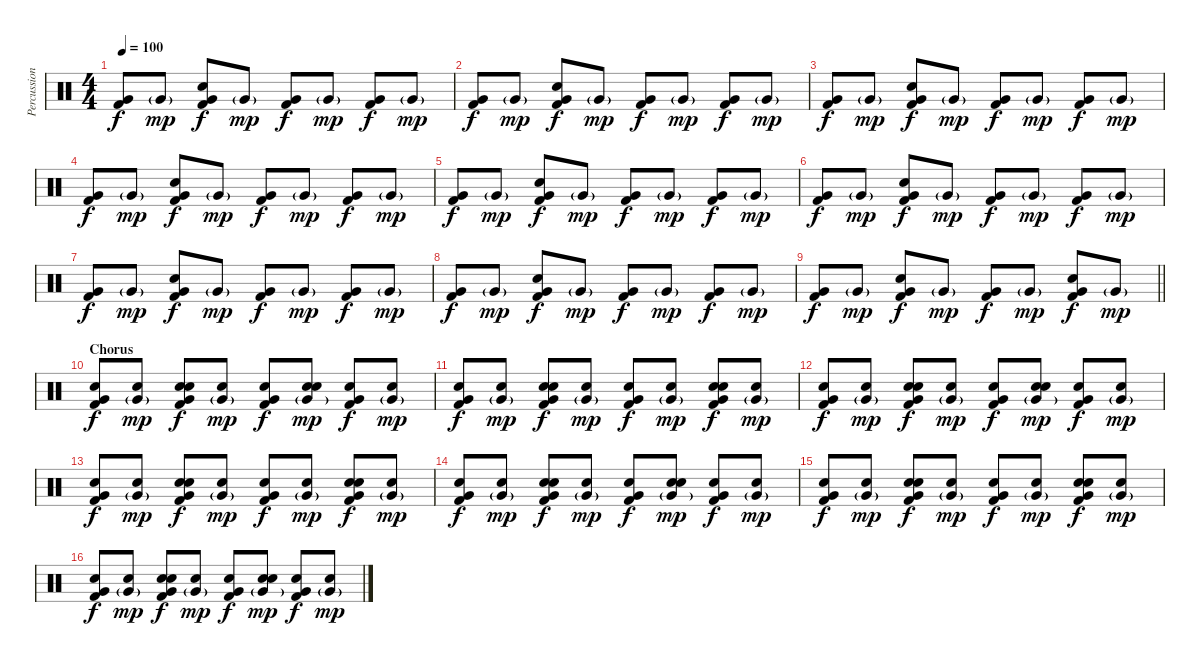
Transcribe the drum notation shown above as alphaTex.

\track ("Percussion" "Percussion") {instrument percussion}
\staff {score}
\articulation defaults
\ts (4 4)
\tempo 100
\clef neutral
\ks c
("Very Low Tom (hit)" "Kick (hit) 2").8{dy f} "Very Low Tom (hit)"{g}.8{dy mp} ("Snare (hit) 2" "Very Low Tom (hit)" "Kick (hit) 2").8{dy f} "Very Low Tom (hit)"{g}.8{dy mp} ("Very Low Tom (hit)" "Kick (hit) 2").8{dy f} "Very Low Tom (hit)"{g}.8{dy mp} ("Very Low Tom (hit)" "Kick (hit) 2").8{dy f} "Very Low Tom (hit)"{g}.8{dy mp} |
("Very Low Tom (hit)" "Kick (hit) 2").8{dy f} "Very Low Tom (hit)"{g}.8{dy mp} ("Snare (hit) 2" "Very Low Tom (hit)" "Kick (hit) 2").8{dy f} "Very Low Tom (hit)"{g}.8{dy mp} ("Very Low Tom (hit)" "Kick (hit) 2").8{dy f} "Very Low Tom (hit)"{g}.8{dy mp} ("Very Low Tom (hit)" "Kick (hit) 2").8{dy f} "Very Low Tom (hit)"{g}.8{dy mp} |
("Very Low Tom (hit)" "Kick (hit) 2").8{dy f} "Very Low Tom (hit)"{g}.8{dy mp} ("Snare (hit) 2" "Very Low Tom (hit)" "Kick (hit) 2").8{dy f} "Very Low Tom (hit)"{g}.8{dy mp} ("Very Low Tom (hit)" "Kick (hit) 2").8{dy f} "Very Low Tom (hit)"{g}.8{dy mp} ("Very Low Tom (hit)" "Kick (hit) 2").8{dy f} "Very Low Tom (hit)"{g}.8{dy mp} |
("Very Low Tom (hit)" "Kick (hit) 2").8{dy f} "Very Low Tom (hit)"{g}.8{dy mp} ("Snare (hit) 2" "Very Low Tom (hit)" "Kick (hit) 2").8{dy f} "Very Low Tom (hit)"{g}.8{dy mp} ("Very Low Tom (hit)" "Kick (hit) 2").8{dy f} "Very Low Tom (hit)"{g}.8{dy mp} ("Very Low Tom (hit)" "Kick (hit) 2").8{dy f} "Very Low Tom (hit)"{g}.8{dy mp} |
("Very Low Tom (hit)" "Kick (hit) 2").8{dy f} "Very Low Tom (hit)"{g}.8{dy mp} ("Snare (hit) 2" "Very Low Tom (hit)" "Kick (hit) 2").8{dy f} "Very Low Tom (hit)"{g}.8{dy mp} ("Very Low Tom (hit)" "Kick (hit) 2").8{dy f} "Very Low Tom (hit)"{g}.8{dy mp} ("Very Low Tom (hit)" "Kick (hit) 2").8{dy f} "Very Low Tom (hit)"{g}.8{dy mp} |
("Very Low Tom (hit)" "Kick (hit) 2").8{dy f} "Very Low Tom (hit)"{g}.8{dy mp} ("Snare (hit) 2" "Very Low Tom (hit)" "Kick (hit) 2").8{dy f} "Very Low Tom (hit)"{g}.8{dy mp} ("Very Low Tom (hit)" "Kick (hit) 2").8{dy f} "Very Low Tom (hit)"{g}.8{dy mp} ("Very Low Tom (hit)" "Kick (hit) 2").8{dy f} "Very Low Tom (hit)"{g}.8{dy mp} |
("Very Low Tom (hit)" "Kick (hit) 2").8{dy f} "Very Low Tom (hit)"{g}.8{dy mp} ("Snare (hit) 2" "Very Low Tom (hit)" "Kick (hit) 2").8{dy f} "Very Low Tom (hit)"{g}.8{dy mp} ("Very Low Tom (hit)" "Kick (hit) 2").8{dy f} "Very Low Tom (hit)"{g}.8{dy mp} ("Very Low Tom (hit)" "Kick (hit) 2").8{dy f} "Very Low Tom (hit)"{g}.8{dy mp} |
("Very Low Tom (hit)" "Kick (hit) 2").8{dy f} "Very Low Tom (hit)"{g}.8{dy mp} ("Snare (hit) 2" "Very Low Tom (hit)" "Kick (hit) 2").8{dy f} "Very Low Tom (hit)"{g}.8{dy mp} ("Very Low Tom (hit)" "Kick (hit) 2").8{dy f} "Very Low Tom (hit)"{g}.8{dy mp} ("Very Low Tom (hit)" "Kick (hit) 2").8{dy f} "Very Low Tom (hit)"{g}.8{dy mp} |
\barLineRight lightlight
("Very Low Tom (hit)" "Kick (hit) 2").8{dy f} "Very Low Tom (hit)"{g}.8{dy mp} ("Snare (hit) 2" "Very Low Tom (hit)" "Kick (hit) 2").8{dy f} "Very Low Tom (hit)"{g}.8{dy mp} ("Very Low Tom (hit)" "Kick (hit) 2").8{dy f} "Very Low Tom (hit)"{g}.8{dy mp} ("Snare (hit) 2" "Very Low Tom (hit)" "Kick (hit) 2").8{dy f} "Very Low Tom (hit)"{g}.8{dy mp} |
\section ("" "Chorus")
("Hand Clap (hit)" "Very Low Tom (hit)" "Kick (hit) 2").8{dy f} ("Hand Clap (hit)" "Very Low Tom (hit)"{g}).8{dy mp} ("Hand Clap (hit)" "Snare (hit) 2" "Very Low Tom (hit)" "Kick (hit) 2").8{dy f} ("Hand Clap (hit)" "Very Low Tom (hit)"{g}).8{dy mp} ("Hand Clap (hit)" "Very Low Tom (hit)" "Kick (hit) 2").8{dy f} ("Hand Clap (hit)" "Snare (hit) 2" "Very Low Tom (hit)"{g}).8{dy mp} ("Hand Clap (hit)" "Very Low Tom (hit)" "Kick (hit) 2").8{dy f} ("Hand Clap (hit)" "Very Low Tom (hit)"{g}).8{dy mp} |
("Hand Clap (hit)" "Very Low Tom (hit)" "Kick (hit) 2").8{dy f} ("Hand Clap (hit)" "Very Low Tom (hit)"{g}).8{dy mp} ("Hand Clap (hit)" "Snare (hit) 2" "Very Low Tom (hit)" "Kick (hit) 2").8{dy f} ("Hand Clap (hit)" "Very Low Tom (hit)"{g}).8{dy mp} ("Hand Clap (hit)" "Very Low Tom (hit)" "Kick (hit) 2").8{dy f} ("Hand Clap (hit)" "Very Low Tom (hit)"{g}).8{dy mp} ("Hand Clap (hit)" "Snare (hit) 2" "Very Low Tom (hit)" "Kick (hit) 2").8{dy f} ("Hand Clap (hit)" "Very Low Tom (hit)"{g}).8{dy mp} |
("Hand Clap (hit)" "Very Low Tom (hit)" "Kick (hit) 2").8{dy f} ("Hand Clap (hit)" "Very Low Tom (hit)"{g}).8{dy mp} ("Hand Clap (hit)" "Snare (hit) 2" "Very Low Tom (hit)" "Kick (hit) 2").8{dy f} ("Hand Clap (hit)" "Very Low Tom (hit)"{g}).8{dy mp} ("Hand Clap (hit)" "Very Low Tom (hit)" "Kick (hit) 2").8{dy f} ("Hand Clap (hit)" "Snare (hit) 2" "Very Low Tom (hit)"{g}).8{dy mp} ("Hand Clap (hit)" "Very Low Tom (hit)" "Kick (hit) 2").8{dy f} ("Hand Clap (hit)" "Very Low Tom (hit)"{g}).8{dy mp} |
("Hand Clap (hit)" "Very Low Tom (hit)" "Kick (hit) 2").8{dy f} ("Hand Clap (hit)" "Very Low Tom (hit)"{g}).8{dy mp} ("Hand Clap (hit)" "Snare (hit) 2" "Very Low Tom (hit)" "Kick (hit) 2").8{dy f} ("Hand Clap (hit)" "Very Low Tom (hit)"{g}).8{dy mp} ("Hand Clap (hit)" "Very Low Tom (hit)" "Kick (hit) 2").8{dy f} ("Hand Clap (hit)" "Very Low Tom (hit)"{g}).8{dy mp} ("Hand Clap (hit)" "Snare (hit) 2" "Very Low Tom (hit)" "Kick (hit) 2").8{dy f} ("Hand Clap (hit)" "Very Low Tom (hit)"{g}).8{dy mp} |
("Hand Clap (hit)" "Very Low Tom (hit)" "Kick (hit) 2").8{dy f} ("Hand Clap (hit)" "Very Low Tom (hit)"{g}).8{dy mp} ("Hand Clap (hit)" "Snare (hit) 2" "Very Low Tom (hit)" "Kick (hit) 2").8{dy f} ("Hand Clap (hit)" "Very Low Tom (hit)"{g}).8{dy mp} ("Hand Clap (hit)" "Very Low Tom (hit)" "Kick (hit) 2").8{dy f} ("Hand Clap (hit)" "Snare (hit) 2" "Very Low Tom (hit)"{g}).8{dy mp} ("Hand Clap (hit)" "Very Low Tom (hit)" "Kick (hit) 2").8{dy f} ("Hand Clap (hit)" "Very Low Tom (hit)"{g}).8{dy mp} |
("Hand Clap (hit)" "Very Low Tom (hit)" "Kick (hit) 2").8{dy f} ("Hand Clap (hit)" "Very Low Tom (hit)"{g}).8{dy mp} ("Hand Clap (hit)" "Snare (hit) 2" "Very Low Tom (hit)" "Kick (hit) 2").8{dy f} ("Hand Clap (hit)" "Very Low Tom (hit)"{g}).8{dy mp} ("Hand Clap (hit)" "Very Low Tom (hit)" "Kick (hit) 2").8{dy f} ("Hand Clap (hit)" "Very Low Tom (hit)"{g}).8{dy mp} ("Hand Clap (hit)" "Snare (hit) 2" "Very Low Tom (hit)" "Kick (hit) 2").8{dy f} ("Hand Clap (hit)" "Very Low Tom (hit)"{g}).8{dy mp} |
("Hand Clap (hit)" "Very Low Tom (hit)" "Kick (hit) 2").8{dy f} ("Hand Clap (hit)" "Very Low Tom (hit)"{g}).8{dy mp} ("Hand Clap (hit)" "Snare (hit) 2" "Very Low Tom (hit)" "Kick (hit) 2").8{dy f} ("Hand Clap (hit)" "Very Low Tom (hit)"{g}).8{dy mp} ("Hand Clap (hit)" "Very Low Tom (hit)" "Kick (hit) 2").8{dy f} ("Hand Clap (hit)" "Snare (hit) 2" "Very Low Tom (hit)"{g}).8{dy mp} ("Hand Clap (hit)" "Very Low Tom (hit)" "Kick (hit) 2").8{dy f} ("Hand Clap (hit)" "Very Low Tom (hit)"{g}).8{dy mp}
